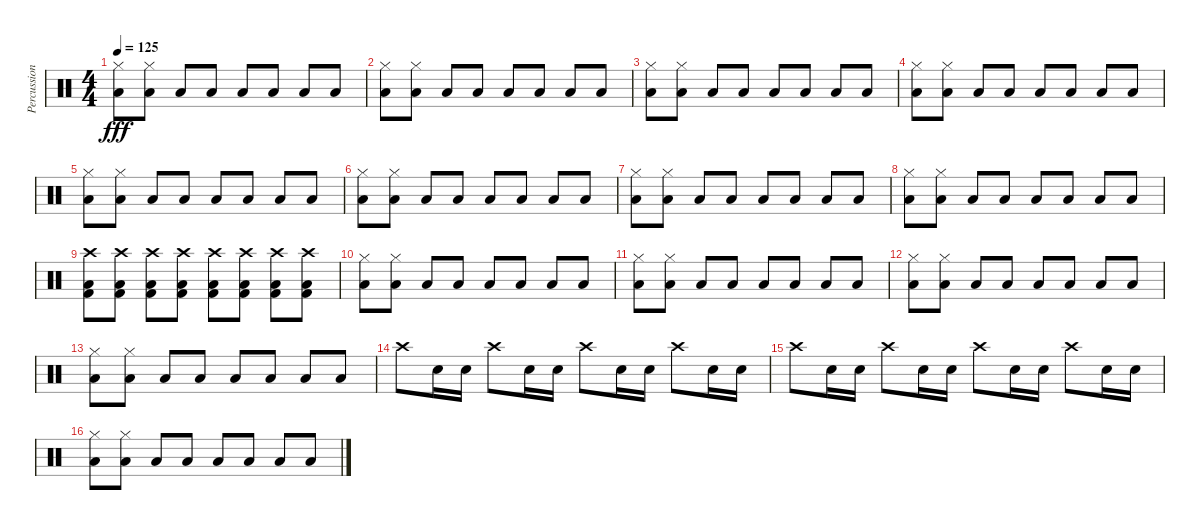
\track ("Percussion" "Percussion") {instrument percussion}
\staff {score}
\articulation defaults
\ts (4 4)
\tempo 125
\clef neutral
\ks c
("Low Floor Tom (hit)" "Hi-Hat (closed)").8{dy fff} ("Low Floor Tom (hit)" "Hi-Hat (closed)").8 "Low Floor Tom (hit)".8 "Low Floor Tom (hit)".8 "Low Floor Tom (hit)".8 "Low Floor Tom (hit)".8 "Low Floor Tom (hit)".8 "Low Floor Tom (hit)".8 |
("Low Floor Tom (hit)" "Hi-Hat (closed)").8 ("Low Floor Tom (hit)" "Hi-Hat (closed)").8 "Low Floor Tom (hit)".8 "Low Floor Tom (hit)".8 "Low Floor Tom (hit)".8 "Low Floor Tom (hit)".8 "Low Floor Tom (hit)".8 "Low Floor Tom (hit)".8 |
("Low Floor Tom (hit)" "Hi-Hat (closed)").8 ("Low Floor Tom (hit)" "Hi-Hat (closed)").8 "Low Floor Tom (hit)".8 "Low Floor Tom (hit)".8 "Low Floor Tom (hit)".8 "Low Floor Tom (hit)".8 "Low Floor Tom (hit)".8 "Low Floor Tom (hit)".8 |
("Low Floor Tom (hit)" "Hi-Hat (closed)").8 ("Low Floor Tom (hit)" "Hi-Hat (closed)").8 "Low Floor Tom (hit)".8 "Low Floor Tom (hit)".8 "Low Floor Tom (hit)".8 "Low Floor Tom (hit)".8 "Low Floor Tom (hit)".8 "Low Floor Tom (hit)".8 |
("Low Floor Tom (hit)" "Hi-Hat (closed)").8 ("Low Floor Tom (hit)" "Hi-Hat (closed)").8 "Low Floor Tom (hit)".8 "Low Floor Tom (hit)".8 "Low Floor Tom (hit)".8 "Low Floor Tom (hit)".8 "Low Floor Tom (hit)".8 "Low Floor Tom (hit)".8 |
("Low Floor Tom (hit)" "Hi-Hat (closed)").8 ("Low Floor Tom (hit)" "Hi-Hat (closed)").8 "Low Floor Tom (hit)".8 "Low Floor Tom (hit)".8 "Low Floor Tom (hit)".8 "Low Floor Tom (hit)".8 "Low Floor Tom (hit)".8 "Low Floor Tom (hit)".8 |
("Low Floor Tom (hit)" "Hi-Hat (closed)").8 ("Low Floor Tom (hit)" "Hi-Hat (closed)").8 "Low Floor Tom (hit)".8 "Low Floor Tom (hit)".8 "Low Floor Tom (hit)".8 "Low Floor Tom (hit)".8 "Low Floor Tom (hit)".8 "Low Floor Tom (hit)".8 |
("Low Floor Tom (hit)" "Hi-Hat (closed)").8 ("Low Floor Tom (hit)" "Hi-Hat (closed)").8 "Low Floor Tom (hit)".8 "Low Floor Tom (hit)".8 "Low Floor Tom (hit)".8 "Low Floor Tom (hit)".8 "Low Floor Tom (hit)".8 "Low Floor Tom (hit)".8 |
("Low Floor Tom (hit)" "Kick (hit) 2" "Crash high (hit)").8 ("Low Floor Tom (hit)" "Kick (hit) 2" "Crash high (hit)").8 ("Low Floor Tom (hit)" "Kick (hit) 2" "Crash high (hit)").8 ("Low Floor Tom (hit)" "Kick (hit) 2" "Crash high (hit)").8 ("Low Floor Tom (hit)" "Kick (hit) 2" "Crash high (hit)").8 ("Low Floor Tom (hit)" "Kick (hit) 2" "Crash high (hit)").8 ("Low Floor Tom (hit)" "Kick (hit) 2" "Crash high (hit)").8 ("Low Floor Tom (hit)" "Kick (hit) 2" "Crash high (hit)").8 |
("Low Floor Tom (hit)" "Hi-Hat (closed)").8 ("Low Floor Tom (hit)" "Hi-Hat (closed)").8 "Low Floor Tom (hit)".8 "Low Floor Tom (hit)".8 "Low Floor Tom (hit)".8 "Low Floor Tom (hit)".8 "Low Floor Tom (hit)".8 "Low Floor Tom (hit)".8 |
("Low Floor Tom (hit)" "Hi-Hat (closed)").8 ("Low Floor Tom (hit)" "Hi-Hat (closed)").8 "Low Floor Tom (hit)".8 "Low Floor Tom (hit)".8 "Low Floor Tom (hit)".8 "Low Floor Tom (hit)".8 "Low Floor Tom (hit)".8 "Low Floor Tom (hit)".8 |
("Low Floor Tom (hit)" "Hi-Hat (closed)").8 ("Low Floor Tom (hit)" "Hi-Hat (closed)").8 "Low Floor Tom (hit)".8 "Low Floor Tom (hit)".8 "Low Floor Tom (hit)".8 "Low Floor Tom (hit)".8 "Low Floor Tom (hit)".8 "Low Floor Tom (hit)".8 |
("Low Floor Tom (hit)" "Hi-Hat (closed)").8 ("Low Floor Tom (hit)" "Hi-Hat (closed)").8 "Low Floor Tom (hit)".8 "Low Floor Tom (hit)".8 "Low Floor Tom (hit)".8 "Low Floor Tom (hit)".8 "Low Floor Tom (hit)".8 "Low Floor Tom (hit)".8 |
"Crash high (hit)".8 "Snare (hit) 2".16 "Snare (hit) 2".16 "Crash high (hit)".8 "Snare (hit) 2".16 "Snare (hit) 2".16 "Crash high (hit)".8 "Snare (hit) 2".16 "Snare (hit) 2".16 "Crash high (hit)".8 "Snare (hit) 2".16 "Snare (hit) 2".16 |
"Crash high (hit)".8 "Snare (hit) 2".16 "Snare (hit) 2".16 "Crash high (hit)".8 "Snare (hit) 2".16 "Snare (hit) 2".16 "Crash high (hit)".8 "Snare (hit) 2".16 "Snare (hit) 2".16 "Crash high (hit)".8 "Snare (hit) 2".16 "Snare (hit) 2".16 |
("Low Floor Tom (hit)" "Hi-Hat (closed)").8 ("Low Floor Tom (hit)" "Hi-Hat (closed)").8 "Low Floor Tom (hit)".8 "Low Floor Tom (hit)".8 "Low Floor Tom (hit)".8 "Low Floor Tom (hit)".8 "Low Floor Tom (hit)".8 "Low Floor Tom (hit)".8
